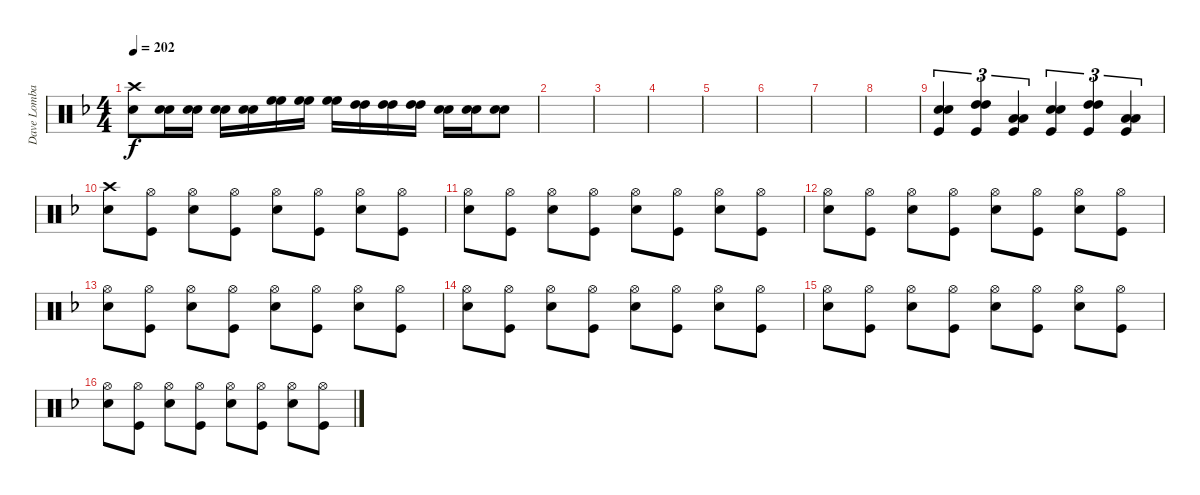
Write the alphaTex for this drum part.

\track ("Dave Lombardo - Drums" "Dave Lomba") {instrument percussion}
\staff {score}
\articulation defaults
\ts (4 4)
\tempo 202
\clef neutral
\ks f
("Crash high (hit)" "Snare (hit) 2").8{dy f} ("Snare (hit) 2" "Snare (hit) 2").16 ("Snare (hit) 2" "Snare (hit) 2").16 ("Snare (hit) 2" "Snare (hit) 2").16 ("Snare (hit) 2" "Snare (hit) 2").16 ("High Floor Tom (hit)" "High Floor Tom (hit)").16 ("High Floor Tom (hit)" "High Floor Tom (hit)").16 ("High Floor Tom (hit)" "High Floor Tom (hit)").16 ("High Tom (hit)" "High Tom (hit)").16 ("High Tom (hit)" "High Tom (hit)").16 ("High Tom (hit)" "High Tom (hit)").16 ("Snare (hit) 2" "Snare (hit) 2").16 ("Snare (hit) 2" "Snare (hit) 2").16 ("Snare (hit) 2" "Snare (hit) 2").8 |
|
|
|
|
|
|
|
("Snare (hit) 2" "Snare (hit) 2" "Kick (hit)").4{tu (3 2)} ("High Tom (hit)" "High Tom (hit)" "Kick (hit)").4{tu (3 2)} ("Low Tom (hit)" "Low Tom (hit)" "Kick (hit)").4{tu (3 2)} ("Snare (hit) 2" "Snare (hit) 2" "Kick (hit)").4{tu (3 2)} ("High Tom (hit)" "High Tom (hit)" "Kick (hit)").4{tu (3 2)} ("Low Tom (hit)" "Low Tom (hit)" "Kick (hit)").4{tu (3 2)} |
("Crash high (hit)" "Snare (hit) 2").8 ("Hi-Hat (open)" "Kick (hit)").8 ("Hi-Hat (open)" "Snare (hit) 2").8 ("Hi-Hat (open)" "Kick (hit)").8 ("Hi-Hat (open)" "Snare (hit) 2").8 ("Hi-Hat (open)" "Kick (hit)").8 ("Hi-Hat (open)" "Snare (hit) 2").8 ("Hi-Hat (open)" "Kick (hit)").8 |
("Hi-Hat (open)" "Snare (hit) 2").8 ("Hi-Hat (open)" "Kick (hit)").8 ("Hi-Hat (open)" "Snare (hit) 2").8 ("Hi-Hat (open)" "Kick (hit)").8 ("Hi-Hat (open)" "Snare (hit) 2").8 ("Hi-Hat (open)" "Kick (hit)").8 ("Hi-Hat (open)" "Snare (hit) 2").8 ("Hi-Hat (open)" "Kick (hit)").8 |
("Hi-Hat (open)" "Snare (hit) 2").8 ("Hi-Hat (open)" "Kick (hit)").8 ("Hi-Hat (open)" "Snare (hit) 2").8 ("Hi-Hat (open)" "Kick (hit)").8 ("Hi-Hat (open)" "Snare (hit) 2").8 ("Hi-Hat (open)" "Kick (hit)").8 ("Hi-Hat (open)" "Snare (hit) 2").8 ("Hi-Hat (open)" "Kick (hit)").8 |
("Hi-Hat (open)" "Snare (hit) 2").8 ("Hi-Hat (open)" "Kick (hit)").8 ("Hi-Hat (open)" "Snare (hit) 2").8 ("Hi-Hat (open)" "Kick (hit)").8 ("Hi-Hat (open)" "Snare (hit) 2").8 ("Hi-Hat (open)" "Kick (hit)").8 ("Hi-Hat (open)" "Snare (hit) 2").8 ("Hi-Hat (open)" "Kick (hit)").8 |
("Hi-Hat (open)" "Snare (hit) 2").8 ("Hi-Hat (open)" "Kick (hit)").8 ("Hi-Hat (open)" "Snare (hit) 2").8 ("Hi-Hat (open)" "Kick (hit)").8 ("Hi-Hat (open)" "Snare (hit) 2").8 ("Hi-Hat (open)" "Kick (hit)").8 ("Hi-Hat (open)" "Snare (hit) 2").8 ("Hi-Hat (open)" "Kick (hit)").8 |
("Hi-Hat (open)" "Snare (hit) 2").8 ("Hi-Hat (open)" "Kick (hit)").8 ("Hi-Hat (open)" "Snare (hit) 2").8 ("Hi-Hat (open)" "Kick (hit)").8 ("Hi-Hat (open)" "Snare (hit) 2").8 ("Hi-Hat (open)" "Kick (hit)").8 ("Hi-Hat (open)" "Snare (hit) 2").8 ("Hi-Hat (open)" "Kick (hit)").8 |
("Hi-Hat (open)" "Snare (hit) 2").8 ("Hi-Hat (open)" "Kick (hit)").8 ("Hi-Hat (open)" "Snare (hit) 2").8 ("Hi-Hat (open)" "Kick (hit)").8 ("Hi-Hat (open)" "Snare (hit) 2").8 ("Hi-Hat (open)" "Kick (hit)").8 ("Hi-Hat (open)" "Snare (hit) 2").8 ("Hi-Hat (open)" "Kick (hit)").8
